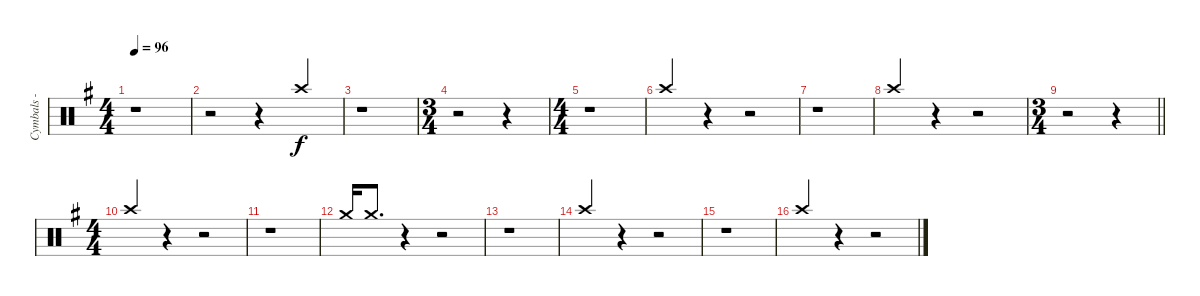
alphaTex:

\track ("Cymbals - crash" "Cymbals - ") {instrument percussion}
\staff {score}
\articulation defaults
\ts (4 4)
\tempo 96
\clef neutral
\ks g
r.1{dy f volume 8} |
r.2 r.4 "Crash high (hit)".4{beam Up} |
r.1 |
\ts (3 4)
r.2 r.4 |
\ts (4 4)
r.1 |
"Crash high (hit)".4{beam Up} r.4 r.2 |
r.1 |
"Crash high (hit)".4{beam Up} r.4 r.2 |
\ts (3 4)
\barLineRight lightlight
r.2 r.4 |
\ts (4 4)
"Crash high (hit)".4{beam Up} r.4 r.2 |
r.1 |
"Crash medium (hit)".16{beam Up} "Crash medium (hit)".8{d beam Up} r.4 r.2 |
r.1 |
"Crash high (hit)".4{beam Up} r.4 r.2 |
r.1 |
"Crash high (hit)".4{beam Up} r.4 r.2
